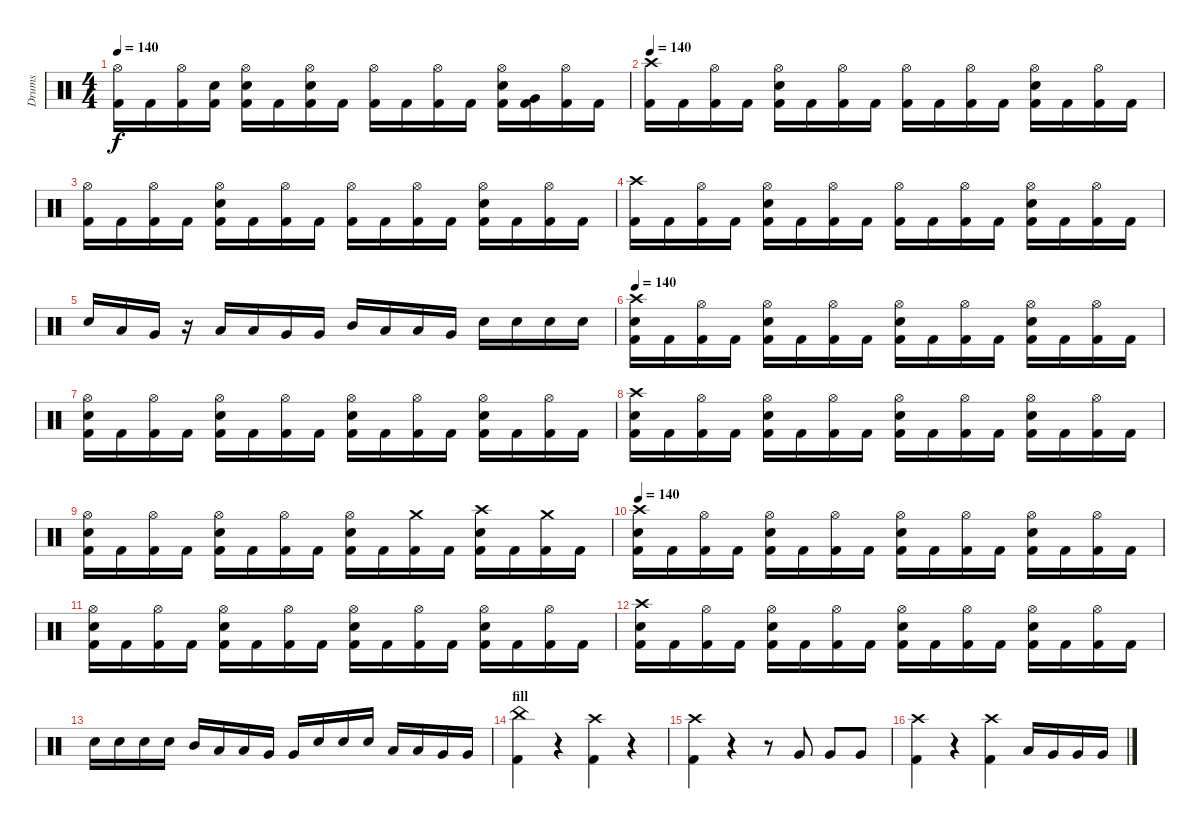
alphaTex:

\track ("Drums" "Drums") {instrument percussion}
\staff {score}
\articulation defaults
\ts (4 4)
\tempo 140
\clef neutral
\ks c
("Hi-Hat (open)" "Kick (hit) 2").16{dy f} "Kick (hit) 2".16 ("Hi-Hat (open)" "Kick (hit) 2").16 ("Snare (hit) 2" "Kick (hit) 2").16 ("Hi-Hat (open)" "Snare (hit) 2" "Kick (hit) 2").16 "Kick (hit) 2".16 ("Hi-Hat (open)" "Snare (hit) 2" "Kick (hit) 2").16 "Kick (hit) 2".16 ("Hi-Hat (open)" "Kick (hit) 2").16 "Kick (hit) 2".16 ("Hi-Hat (open)" "Kick (hit) 2").16 "Kick (hit) 2".16 ("Hi-Hat (open)" "Snare (hit) 2" "Kick (hit) 2").16 ("Very Low Tom (hit)" "Kick (hit) 2").16 ("Hi-Hat (open)" "Kick (hit) 2").16 "Kick (hit) 2".16 |
\tempo 140
("Crash high (hit)" "Kick (hit) 2").16 "Kick (hit) 2".16 ("Hi-Hat (open)" "Kick (hit) 2").16 "Kick (hit) 2".16 ("Hi-Hat (open)" "Snare (hit) 2" "Kick (hit) 2").16 "Kick (hit) 2".16 ("Hi-Hat (open)" "Kick (hit) 2").16 "Kick (hit) 2".16 ("Hi-Hat (open)" "Kick (hit) 2").16 "Kick (hit) 2".16 ("Hi-Hat (open)" "Kick (hit) 2").16 "Kick (hit) 2".16 ("Hi-Hat (open)" "Snare (hit) 2" "Kick (hit) 2").16 "Kick (hit) 2".16 ("Hi-Hat (open)" "Kick (hit) 2").16 "Kick (hit) 2".16 |
("Hi-Hat (open)" "Kick (hit) 2").16 "Kick (hit) 2".16 ("Hi-Hat (open)" "Kick (hit) 2").16 "Kick (hit) 2".16 ("Hi-Hat (open)" "Snare (hit) 2" "Kick (hit) 2").16 "Kick (hit) 2".16 ("Hi-Hat (open)" "Kick (hit) 2").16 "Kick (hit) 2".16 ("Hi-Hat (open)" "Kick (hit) 2").16 "Kick (hit) 2".16 ("Hi-Hat (open)" "Kick (hit) 2").16 "Kick (hit) 2".16 ("Hi-Hat (open)" "Snare (hit) 2" "Kick (hit) 2").16 "Kick (hit) 2".16 ("Hi-Hat (open)" "Kick (hit) 2").16 "Kick (hit) 2".16 |
("Crash high (hit)" "Kick (hit) 2").16 "Kick (hit) 2".16 ("Hi-Hat (open)" "Kick (hit) 2").16 "Kick (hit) 2".16 ("Hi-Hat (open)" "Snare (hit) 2" "Kick (hit) 2").16 "Kick (hit) 2".16 ("Hi-Hat (open)" "Kick (hit) 2").16 "Kick (hit) 2".16 ("Hi-Hat (open)" "Kick (hit) 2").16 "Kick (hit) 2".16 ("Hi-Hat (open)" "Kick (hit) 2").16 "Kick (hit) 2".16 ("Hi-Hat (open)" "Snare (hit) 2" "Kick (hit) 2").16 "Kick (hit) 2".16 ("Hi-Hat (open)" "Kick (hit) 2").16 "Kick (hit) 2".16 |
"Snare (hit) 2".16 "Low Tom (hit)".16 "Very Low Tom (hit)".16 r.16 "Low Tom (hit)".16 "Low Tom (hit)".16 "Very Low Tom (hit)".16 "Very Low Tom (hit)".16 "Mid Tom (hit)".16 "Low Tom (hit)".16 "Low Tom (hit)".16 "Very Low Tom (hit)".16 "Snare (hit) 2".16 "Snare (hit) 2".16 "Snare (hit) 2".16 "Snare (hit) 2".16 |
\tempo 140
("Crash high (hit)" "Snare (hit) 2" "Kick (hit) 2").16 "Kick (hit) 2".16 ("Hi-Hat (open)" "Kick (hit) 2").16 "Kick (hit) 2".16 ("Hi-Hat (open)" "Snare (hit) 2" "Kick (hit) 2").16 "Kick (hit) 2".16 ("Hi-Hat (open)" "Kick (hit) 2").16 "Kick (hit) 2".16 ("Hi-Hat (open)" "Snare (hit) 2" "Kick (hit) 2").16 "Kick (hit) 2".16 ("Hi-Hat (open)" "Kick (hit) 2").16 "Kick (hit) 2".16 ("Hi-Hat (open)" "Snare (hit) 2" "Kick (hit) 2").16 "Kick (hit) 2".16 ("Hi-Hat (open)" "Kick (hit) 2").16 "Kick (hit) 2".16 |
("Hi-Hat (open)" "Snare (hit) 2" "Kick (hit) 2").16 "Kick (hit) 2".16 ("Hi-Hat (open)" "Kick (hit) 2").16 "Kick (hit) 2".16 ("Hi-Hat (open)" "Snare (hit) 2" "Kick (hit) 2").16 "Kick (hit) 2".16 ("Hi-Hat (open)" "Kick (hit) 2").16 "Kick (hit) 2".16 ("Hi-Hat (open)" "Snare (hit) 2" "Kick (hit) 2").16 "Kick (hit) 2".16 ("Hi-Hat (open)" "Kick (hit) 2").16 "Kick (hit) 2".16 ("Hi-Hat (open)" "Snare (hit) 2" "Kick (hit) 2").16 "Kick (hit) 2".16 ("Hi-Hat (open)" "Kick (hit) 2").16 "Kick (hit) 2".16 |
("Crash high (hit)" "Snare (hit) 2" "Kick (hit) 2").16 "Kick (hit) 2".16 ("Hi-Hat (open)" "Kick (hit) 2").16 "Kick (hit) 2".16 ("Hi-Hat (open)" "Snare (hit) 2" "Kick (hit) 2").16 "Kick (hit) 2".16 ("Hi-Hat (open)" "Kick (hit) 2").16 "Kick (hit) 2".16 ("Hi-Hat (open)" "Snare (hit) 2" "Kick (hit) 2").16 "Kick (hit) 2".16 ("Hi-Hat (open)" "Kick (hit) 2").16 "Kick (hit) 2".16 ("Hi-Hat (open)" "Snare (hit) 2" "Kick (hit) 2").16 "Kick (hit) 2".16 ("Hi-Hat (open)" "Kick (hit) 2").16 "Kick (hit) 2".16 |
("Hi-Hat (open)" "Snare (hit) 2" "Kick (hit) 2").16 "Kick (hit) 2".16 ("Hi-Hat (open)" "Kick (hit) 2").16 "Kick (hit) 2".16 ("Hi-Hat (open)" "Snare (hit) 2" "Kick (hit) 2").16 "Kick (hit) 2".16 ("Hi-Hat (open)" "Kick (hit) 2").16 "Kick (hit) 2".16 ("Hi-Hat (open)" "Snare (hit) 2" "Kick (hit) 2").16 "Kick (hit) 2".16 ("Crash medium (hit)" "Kick (hit) 2").16 "Kick (hit) 2".16 ("Crash high (hit)" "Snare (hit) 2" "Kick (hit) 2").16 "Kick (hit) 2".16 ("Crash medium (hit)" "Kick (hit) 2").16 "Kick (hit) 2".16 |
\tempo 140
("Crash high (hit)" "Snare (hit) 2" "Kick (hit) 2").16 "Kick (hit) 2".16 ("Hi-Hat (open)" "Kick (hit) 2").16 "Kick (hit) 2".16 ("Hi-Hat (open)" "Snare (hit) 2" "Kick (hit) 2").16 "Kick (hit) 2".16 ("Hi-Hat (open)" "Kick (hit) 2").16 "Kick (hit) 2".16 ("Hi-Hat (open)" "Snare (hit) 2" "Kick (hit) 2").16 "Kick (hit) 2".16 ("Hi-Hat (open)" "Kick (hit) 2").16 "Kick (hit) 2".16 ("Hi-Hat (open)" "Snare (hit) 2" "Kick (hit) 2").16 "Kick (hit) 2".16 ("Hi-Hat (open)" "Kick (hit) 2").16 "Kick (hit) 2".16 |
("Hi-Hat (open)" "Snare (hit) 2" "Kick (hit) 2").16 "Kick (hit) 2".16 ("Hi-Hat (open)" "Kick (hit) 2").16 "Kick (hit) 2".16 ("Hi-Hat (open)" "Snare (hit) 2" "Kick (hit) 2").16 "Kick (hit) 2".16 ("Hi-Hat (open)" "Kick (hit) 2").16 "Kick (hit) 2".16 ("Hi-Hat (open)" "Snare (hit) 2" "Kick (hit) 2").16 "Kick (hit) 2".16 ("Hi-Hat (open)" "Kick (hit) 2").16 "Kick (hit) 2".16 ("Hi-Hat (open)" "Snare (hit) 2" "Kick (hit) 2").16 "Kick (hit) 2".16 ("Hi-Hat (open)" "Kick (hit) 2").16 "Kick (hit) 2".16 |
("Crash high (hit)" "Snare (hit) 2" "Kick (hit) 2").16 "Kick (hit) 2".16 ("Hi-Hat (open)" "Kick (hit) 2").16 "Kick (hit) 2".16 ("Hi-Hat (open)" "Snare (hit) 2" "Kick (hit) 2").16 "Kick (hit) 2".16 ("Hi-Hat (open)" "Kick (hit) 2").16 "Kick (hit) 2".16 ("Hi-Hat (open)" "Snare (hit) 2" "Kick (hit) 2").16 "Kick (hit) 2".16 ("Hi-Hat (open)" "Kick (hit) 2").16 "Kick (hit) 2".16 ("Hi-Hat (open)" "Snare (hit) 2" "Kick (hit) 2").16 "Kick (hit) 2".16 ("Hi-Hat (open)" "Kick (hit) 2").16 "Kick (hit) 2".16 |
"Snare (hit) 2".16 "Snare (hit) 2".16 "Snare (hit) 2".16 "Snare (hit) 2".16 "Mid Tom (hit)".16 "Low Tom (hit)".16 "Low Tom (hit)".16 "Very Low Tom (hit)".16 "Very Low Tom (hit)".16 "Snare (hit) 2".16 "Snare (hit) 2".16 "Snare (hit) 2".16 "Low Tom (hit)".16 "Low Tom (hit)".16 "Very Low Tom (hit)".16 "Very Low Tom (hit)".16 |
\section ("" "fill")
("China (hit)" "Kick (hit) 2").4 r.4 ("Crash high (hit)" "Kick (hit) 2").4 r.4 |
("Crash high (hit)" "Kick (hit) 2").4 r.4 r.8 "Very Low Tom (hit)".8 "Very Low Tom (hit)".8 "Very Low Tom (hit)".8 |
("Crash high (hit)" "Kick (hit) 2").4 r.4 ("Crash high (hit)" "Kick (hit) 2").4 "Low Tom (hit)".16 "Very Low Tom (hit)".16 "Very Low Tom (hit)".16 "Very Low Tom (hit)".16
